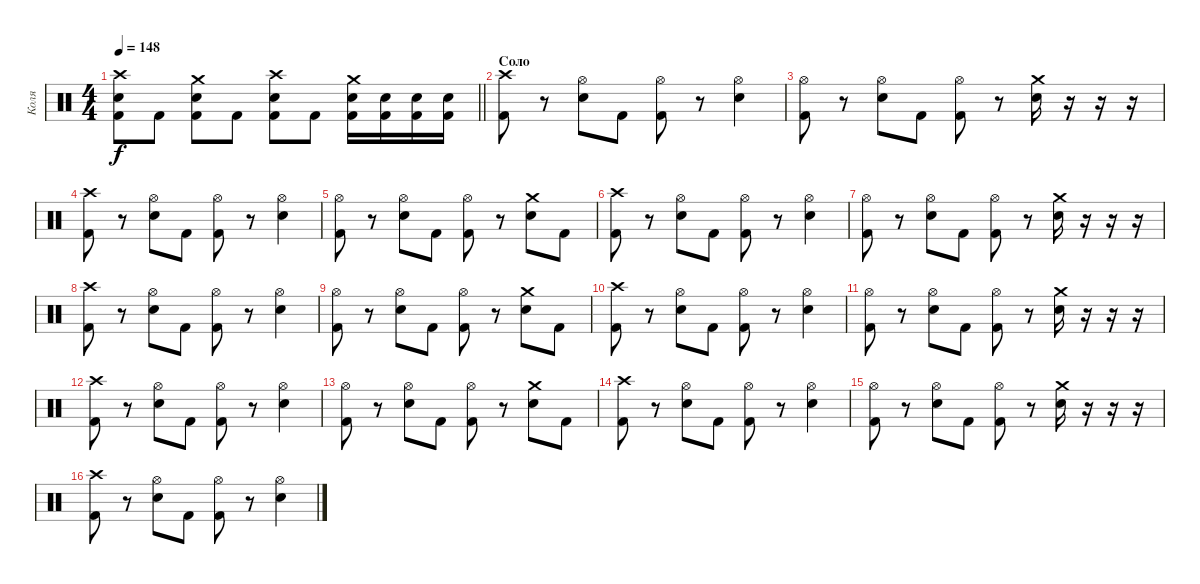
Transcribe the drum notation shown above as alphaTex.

\track ("Коля" "Коля") {instrument percussion}
\staff {score}
\articulation defaults
\ts (4 4)
\tempo 148
\clef neutral
\barLineRight lightlight
\ks c
("Kick (hit) 2" "Electric Snare (hit)" "Crash high (hit)").8{dy f} "Kick (hit) 2".8 ("Kick (hit) 2" "Electric Snare (hit)" "Crash medium (hit)").8 "Kick (hit) 2".8 ("Kick (hit) 2" "Electric Snare (hit)" "Crash high (hit)").8 "Kick (hit) 2".8 ("Kick (hit) 2" "Electric Snare (hit)" "Crash medium (hit)").16 ("Kick (hit) 2" "Electric Snare (hit)").16 ("Kick (hit) 2" "Electric Snare (hit)").16 ("Kick (hit) 2" "Electric Snare (hit)").16 |
\section ("" "Соло")
("Kick (hit) 2" "Crash high (hit)").8 r.8 ("Electric Snare (hit)" "Hi-Hat (open)").8 "Kick (hit) 2".8 ("Kick (hit) 2" "Hi-Hat (open)").8 r.8 ("Electric Snare (hit)" "Hi-Hat (open)").4 |
("Kick (hit) 2" "Hi-Hat (open)").8 r.8 ("Electric Snare (hit)" "Hi-Hat (open)").8 "Kick (hit) 2".8 ("Kick (hit) 2" "Hi-Hat (open)").8 r.8 ("Electric Snare (hit)" "Crash medium (hit)").16 r.16 r.16 r.16 |
("Kick (hit) 2" "Crash high (hit)").8 r.8 ("Electric Snare (hit)" "Hi-Hat (open)").8 "Kick (hit) 2".8 ("Kick (hit) 2" "Hi-Hat (open)").8 r.8 ("Electric Snare (hit)" "Hi-Hat (open)").4 |
("Kick (hit) 2" "Hi-Hat (open)").8 r.8 ("Electric Snare (hit)" "Hi-Hat (open)").8 "Kick (hit) 2".8 ("Kick (hit) 2" "Hi-Hat (open)").8 r.8 ("Electric Snare (hit)" "Crash medium (hit)").8 "Kick (hit) 2".8 |
("Kick (hit) 2" "Crash high (hit)").8 r.8 ("Electric Snare (hit)" "Hi-Hat (open)").8 "Kick (hit) 2".8 ("Kick (hit) 2" "Hi-Hat (open)").8 r.8 ("Electric Snare (hit)" "Hi-Hat (open)").4 |
("Kick (hit) 2" "Hi-Hat (open)").8 r.8 ("Electric Snare (hit)" "Hi-Hat (open)").8 "Kick (hit) 2".8 ("Kick (hit) 2" "Hi-Hat (open)").8 r.8 ("Electric Snare (hit)" "Crash medium (hit)").16 r.16 r.16 r.16 |
("Kick (hit) 2" "Crash high (hit)").8 r.8 ("Electric Snare (hit)" "Hi-Hat (open)").8 "Kick (hit) 2".8 ("Kick (hit) 2" "Hi-Hat (open)").8 r.8 ("Electric Snare (hit)" "Hi-Hat (open)").4 |
("Kick (hit) 2" "Hi-Hat (open)").8 r.8 ("Electric Snare (hit)" "Hi-Hat (open)").8 "Kick (hit) 2".8 ("Kick (hit) 2" "Hi-Hat (open)").8 r.8 ("Electric Snare (hit)" "Crash medium (hit)").8 "Kick (hit) 2".8 |
("Kick (hit) 2" "Crash high (hit)").8 r.8 ("Electric Snare (hit)" "Hi-Hat (open)").8 "Kick (hit) 2".8 ("Kick (hit) 2" "Hi-Hat (open)").8 r.8 ("Electric Snare (hit)" "Hi-Hat (open)").4 |
("Kick (hit) 2" "Hi-Hat (open)").8 r.8 ("Electric Snare (hit)" "Hi-Hat (open)").8 "Kick (hit) 2".8 ("Kick (hit) 2" "Hi-Hat (open)").8 r.8 ("Electric Snare (hit)" "Crash medium (hit)").16 r.16 r.16 r.16 |
("Kick (hit) 2" "Crash high (hit)").8 r.8 ("Electric Snare (hit)" "Hi-Hat (open)").8 "Kick (hit) 2".8 ("Kick (hit) 2" "Hi-Hat (open)").8 r.8 ("Electric Snare (hit)" "Hi-Hat (open)").4 |
("Kick (hit) 2" "Hi-Hat (open)").8 r.8 ("Electric Snare (hit)" "Hi-Hat (open)").8 "Kick (hit) 2".8 ("Kick (hit) 2" "Hi-Hat (open)").8 r.8 ("Electric Snare (hit)" "Crash medium (hit)").8 "Kick (hit) 2".8 |
("Kick (hit) 2" "Crash high (hit)").8 r.8 ("Electric Snare (hit)" "Hi-Hat (open)").8 "Kick (hit) 2".8 ("Kick (hit) 2" "Hi-Hat (open)").8 r.8 ("Electric Snare (hit)" "Hi-Hat (open)").4 |
("Kick (hit) 2" "Hi-Hat (open)").8 r.8 ("Electric Snare (hit)" "Hi-Hat (open)").8 "Kick (hit) 2".8 ("Kick (hit) 2" "Hi-Hat (open)").8 r.8 ("Electric Snare (hit)" "Crash medium (hit)").16 r.16 r.16 r.16 |
("Kick (hit) 2" "Crash high (hit)").8 r.8 ("Electric Snare (hit)" "Hi-Hat (open)").8 "Kick (hit) 2".8 ("Kick (hit) 2" "Hi-Hat (open)").8 r.8 ("Electric Snare (hit)" "Hi-Hat (open)").4
